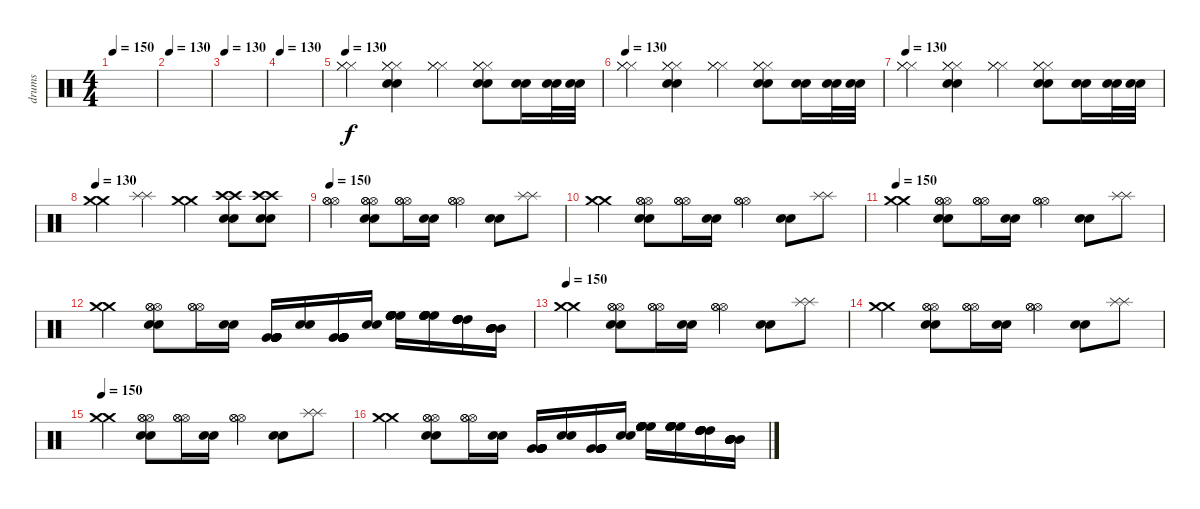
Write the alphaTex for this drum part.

\track ("drums" "drums") {instrument percussion}
\staff {score}
\articulation defaults
\ts (4 4)
\tempo 150
\tempo 130
\tempo 150
\clef neutral
\ks c
|
\tempo 130
|
\tempo 130
|
\tempo 130
|
\tempo 130
("Hi-Hat (closed)" "Hi-Hat (closed)" "Hi-Hat (closed)").4 ("Snare (hit) 2" "Snare (hit) 2" "Hi-Hat (closed)" "Hi-Hat (closed)" "Hi-Hat (closed)").4 ("Hi-Hat (closed)" "Hi-Hat (closed)" "Hi-Hat (closed)").4 ("Snare (hit) 2" "Snare (hit) 2" "Hi-Hat (closed)" "Hi-Hat (closed)" "Hi-Hat (closed)").8 ("Snare (hit) 2" "Snare (hit) 2").16 ("Snare (hit) 2" "Snare (hit) 2").32 ("Snare (hit) 2" "Snare (hit) 2").32 |
\tempo 130
("Hi-Hat (closed)" "Hi-Hat (closed)" "Hi-Hat (closed)").4 ("Snare (hit) 2" "Snare (hit) 2" "Hi-Hat (closed)" "Hi-Hat (closed)" "Hi-Hat (closed)").4 ("Hi-Hat (closed)" "Hi-Hat (closed)" "Hi-Hat (closed)").4 ("Snare (hit) 2" "Snare (hit) 2" "Hi-Hat (closed)" "Hi-Hat (closed)" "Hi-Hat (closed)").8 ("Snare (hit) 2" "Snare (hit) 2").16 ("Snare (hit) 2" "Snare (hit) 2").32 ("Snare (hit) 2" "Snare (hit) 2").32 |
\tempo 130
("Hi-Hat (closed)" "Hi-Hat (closed)" "Hi-Hat (closed)").4 ("Snare (hit) 2" "Snare (hit) 2" "Hi-Hat (closed)" "Hi-Hat (closed)" "Hi-Hat (closed)").4 ("Hi-Hat (closed)" "Hi-Hat (closed)" "Hi-Hat (closed)").4 ("Snare (hit) 2" "Snare (hit) 2" "Hi-Hat (closed)" "Hi-Hat (closed)" "Hi-Hat (closed)").8 ("Snare (hit) 2" "Snare (hit) 2").16 ("Snare (hit) 2" "Snare (hit) 2").32 ("Snare (hit) 2" "Snare (hit) 2").32 |
\tempo 130
("Crash medium (hit)" "Crash medium (hit)").4 ("Splash (hit)" "Splash (hit)").4 ("Crash medium (hit)" "Crash medium (hit)").4 ("Crash high (hit)" "Crash high (hit)" "Snare (hit) 2" "Snare (hit) 2").8 ("Crash high (hit)" "Crash high (hit)" "Snare (hit) 2" "Snare (hit) 2").8 |
\tempo 150
("Hi-Hat (open)" "Hi-Hat (open)" "Hi-Hat (open)").4{volume 16} ("Snare (hit) 2" "Snare (hit) 2" "Hi-Hat (open)" "Hi-Hat (open)" "Hi-Hat (open)").8 ("Hi-Hat (open)" "Hi-Hat (open)" "Hi-Hat (open)").16 ("Snare (hit) 2" "Snare (hit) 2").16 ("Hi-Hat (open)" "Hi-Hat (open)" "Hi-Hat (open)").4 ("Snare (hit) 2" "Snare (hit) 2").8 ("Splash (hit)" "Splash (hit)").8 |
("Crash medium (hit)" "Crash medium (hit)").4 ("Snare (hit) 2" "Snare (hit) 2" "Hi-Hat (open)" "Hi-Hat (open)" "Hi-Hat (open)").8 ("Hi-Hat (open)" "Hi-Hat (open)" "Hi-Hat (open)").16 ("Snare (hit) 2" "Snare (hit) 2").16 ("Hi-Hat (open)" "Hi-Hat (open)" "Hi-Hat (open)").4 ("Snare (hit) 2" "Snare (hit) 2").8 ("Splash (hit)" "Splash (hit)").8 |
\tempo 150
("Crash medium (hit)" "Crash medium (hit)").4 ("Snare (hit) 2" "Snare (hit) 2" "Hi-Hat (open)" "Hi-Hat (open)" "Hi-Hat (open)").8 ("Hi-Hat (open)" "Hi-Hat (open)" "Hi-Hat (open)").16 ("Snare (hit) 2" "Snare (hit) 2").16 ("Hi-Hat (open)" "Hi-Hat (open)" "Hi-Hat (open)").4 ("Snare (hit) 2" "Snare (hit) 2").8 ("Splash (hit)" "Splash (hit)").8 |
("Crash medium (hit)" "Crash medium (hit)").4 ("Snare (hit) 2" "Snare (hit) 2" "Hi-Hat (open)" "Hi-Hat (open)" "Hi-Hat (open)").8 ("Hi-Hat (open)" "Hi-Hat (open)" "Hi-Hat (open)").16 ("Snare (hit) 2" "Snare (hit) 2").16 ("Very Low Tom (hit)" "Very Low Tom (hit)" "Very Low Tom (hit)" "Very Low Tom (hit)" "Very Low Tom (hit)" "Very Low Tom (hit)").16 ("Snare (hit) 2" "Snare (hit) 2").16 ("Very Low Tom (hit)" "Very Low Tom (hit)" "Very Low Tom (hit)" "Very Low Tom (hit)" "Very Low Tom (hit)" "Very Low Tom (hit)").16 ("Snare (hit) 2" "Snare (hit) 2").16 ("High Floor Tom (hit)" "High Floor Tom (hit)" "High Floor Tom (hit)" "High Floor Tom (hit)" "High Floor Tom (hit)" "High Floor Tom (hit)").16 ("High Floor Tom (hit)" "High Floor Tom (hit)" "High Floor Tom (hit)" "High Floor Tom (hit)" "High Floor Tom (hit)" "High Floor Tom (hit)").16 ("High Tom (hit)" "High Tom (hit)" "High Tom (hit)" "High Tom (hit)" "High Tom (hit)" "High Tom (hit)").16 ("Mid Tom (hit)" "Mid Tom (hit)" "Mid Tom (hit)" "Mid Tom (hit)" "Mid Tom (hit)" "Mid Tom (hit)").16 |
\tempo 150
("Crash medium (hit)" "Crash medium (hit)").4 ("Snare (hit) 2" "Snare (hit) 2" "Hi-Hat (open)" "Hi-Hat (open)" "Hi-Hat (open)").8 ("Hi-Hat (open)" "Hi-Hat (open)" "Hi-Hat (open)").16 ("Snare (hit) 2" "Snare (hit) 2").16 ("Hi-Hat (open)" "Hi-Hat (open)" "Hi-Hat (open)").4 ("Snare (hit) 2" "Snare (hit) 2").8 ("Splash (hit)" "Splash (hit)").8 |
("Crash medium (hit)" "Crash medium (hit)").4 ("Snare (hit) 2" "Snare (hit) 2" "Hi-Hat (open)" "Hi-Hat (open)" "Hi-Hat (open)").8 ("Hi-Hat (open)" "Hi-Hat (open)" "Hi-Hat (open)").16 ("Snare (hit) 2" "Snare (hit) 2").16 ("Hi-Hat (open)" "Hi-Hat (open)" "Hi-Hat (open)").4 ("Snare (hit) 2" "Snare (hit) 2").8 ("Splash (hit)" "Splash (hit)").8 |
\tempo 150
("Crash medium (hit)" "Crash medium (hit)").4 ("Snare (hit) 2" "Snare (hit) 2" "Hi-Hat (open)" "Hi-Hat (open)" "Hi-Hat (open)").8 ("Hi-Hat (open)" "Hi-Hat (open)" "Hi-Hat (open)").16 ("Snare (hit) 2" "Snare (hit) 2").16 ("Hi-Hat (open)" "Hi-Hat (open)" "Hi-Hat (open)").4 ("Snare (hit) 2" "Snare (hit) 2").8 ("Splash (hit)" "Splash (hit)").8 |
("Crash medium (hit)" "Crash medium (hit)").4 ("Snare (hit) 2" "Snare (hit) 2" "Hi-Hat (open)" "Hi-Hat (open)" "Hi-Hat (open)").8 ("Hi-Hat (open)" "Hi-Hat (open)" "Hi-Hat (open)").16 ("Snare (hit) 2" "Snare (hit) 2").16 ("Very Low Tom (hit)" "Very Low Tom (hit)" "Very Low Tom (hit)" "Very Low Tom (hit)" "Very Low Tom (hit)" "Very Low Tom (hit)").16 ("Snare (hit) 2" "Snare (hit) 2").16 ("Very Low Tom (hit)" "Very Low Tom (hit)" "Very Low Tom (hit)" "Very Low Tom (hit)" "Very Low Tom (hit)" "Very Low Tom (hit)").16 ("Snare (hit) 2" "Snare (hit) 2").16 ("High Floor Tom (hit)" "High Floor Tom (hit)" "High Floor Tom (hit)" "High Floor Tom (hit)" "High Floor Tom (hit)" "High Floor Tom (hit)").16 ("High Floor Tom (hit)" "High Floor Tom (hit)" "High Floor Tom (hit)" "High Floor Tom (hit)" "High Floor Tom (hit)" "High Floor Tom (hit)").16 ("High Tom (hit)" "High Tom (hit)" "High Tom (hit)" "High Tom (hit)" "High Tom (hit)" "High Tom (hit)").16 ("Mid Tom (hit)" "Mid Tom (hit)" "Mid Tom (hit)" "Mid Tom (hit)" "Mid Tom (hit)" "Mid Tom (hit)").16
